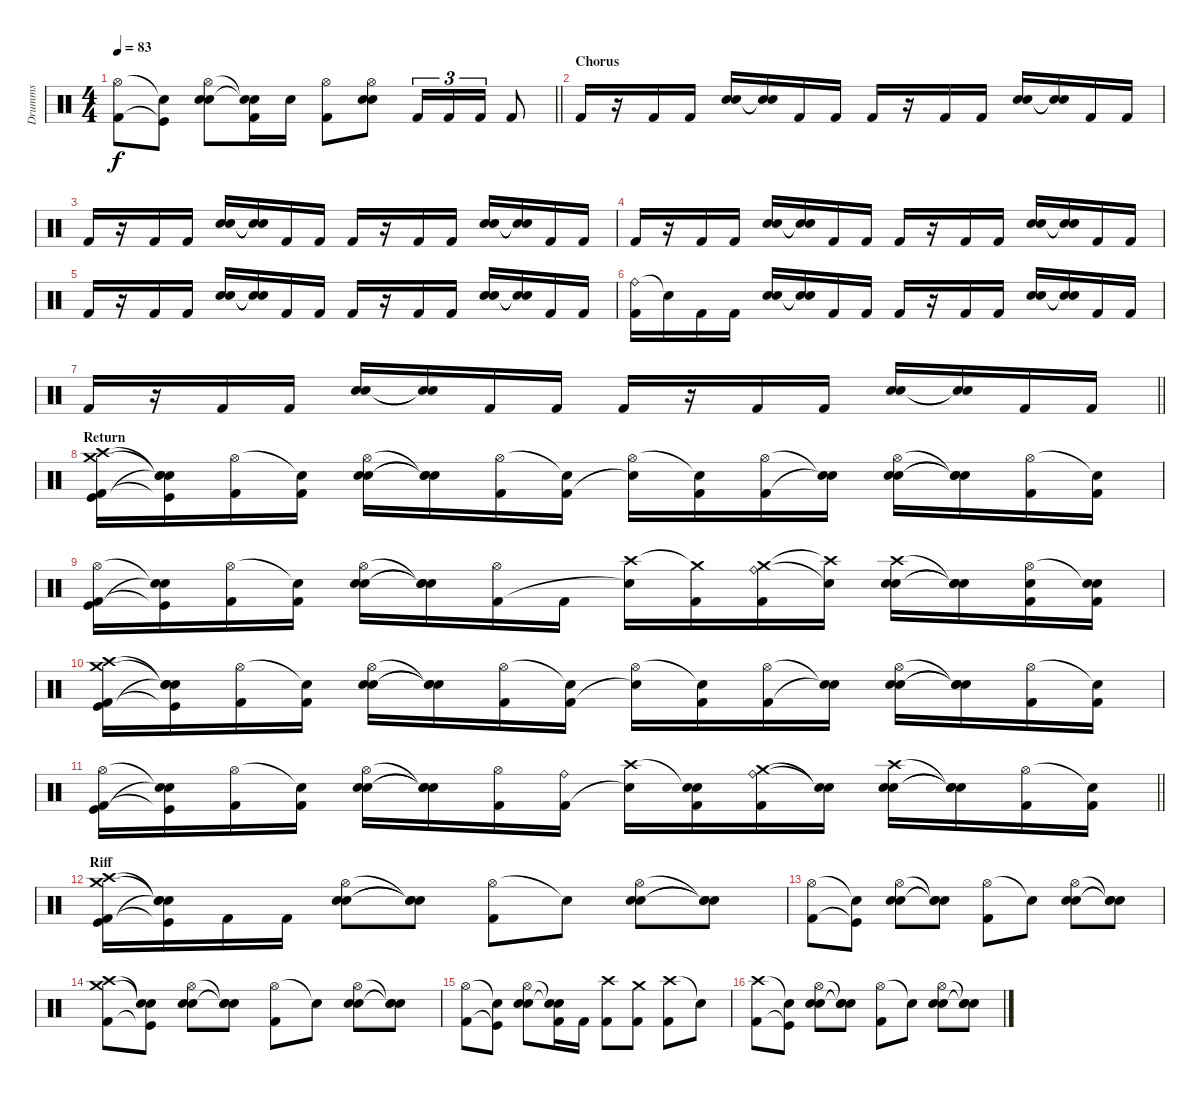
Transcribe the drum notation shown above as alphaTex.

\track ("Drumms" "Drumms") {instrument percussion}
\staff {score}
\articulation defaults
\ts (4 4)
\tempo 83
\clef neutral
\barLineRight lightlight
\ks c
("Hi-Hat (open)" "Kick (hit) 2").8{dy f} ("Snare (hit)"{t} "Kick (hit)"{t}).8 ("Hi-Hat (open)" "Electric Snare (hit)" "Electric Snare (hit)").8 ("Snare (hit)"{t} "Kick (hit) 2" "Snare (hit)"{t}).16 "Electric Snare (hit)".16 ("Hi-Hat (open)" "Kick (hit) 2").8 ("Hi-Hat (open)" "Electric Snare (hit)" "Electric Snare (hit)").8 "Kick (hit) 2".16{tu (3 2)} "Kick (hit) 2".16{tu (3 2)} "Kick (hit) 2".16{tu (3 2)} "Kick (hit) 2".8 |
\section ("" "Chorus")
"Kick (hit) 2".16 r.16 "Kick (hit) 2".16 "Kick (hit) 2".16 ("Electric Snare (hit)" "Electric Snare (hit)").16 ("Snare (hit)"{t} "Snare (hit)"{t}).16 "Kick (hit) 2".16 "Kick (hit) 2".16 "Kick (hit) 2".16 r.16 "Kick (hit) 2".16 "Kick (hit) 2".16 ("Electric Snare (hit)" "Electric Snare (hit)").16 ("Snare (hit)"{t} "Snare (hit)"{t}).16 "Kick (hit) 2".16 "Kick (hit) 2".16 |
"Kick (hit) 2".16 r.16 "Kick (hit) 2".16 "Kick (hit) 2".16 ("Electric Snare (hit)" "Electric Snare (hit)").16 ("Snare (hit)"{t} "Snare (hit)"{t}).16 "Kick (hit) 2".16 "Kick (hit) 2".16 "Kick (hit) 2".16 r.16 "Kick (hit) 2".16 "Kick (hit) 2".16 ("Electric Snare (hit)" "Electric Snare (hit)").16 ("Snare (hit)"{t} "Snare (hit)"{t}).16 "Kick (hit) 2".16 "Kick (hit) 2".16 |
"Kick (hit) 2".16 r.16 "Kick (hit) 2".16 "Kick (hit) 2".16 ("Electric Snare (hit)" "Electric Snare (hit)").16 ("Snare (hit)"{t} "Snare (hit)"{t}).16 "Kick (hit) 2".16 "Kick (hit) 2".16 "Kick (hit) 2".16 r.16 "Kick (hit) 2".16 "Kick (hit) 2".16 ("Electric Snare (hit)" "Electric Snare (hit)").16 ("Snare (hit)"{t} "Snare (hit)"{t}).16 "Kick (hit) 2".16 "Kick (hit) 2".16 |
"Kick (hit) 2".16 r.16 "Kick (hit) 2".16 "Kick (hit) 2".16 ("Electric Snare (hit)" "Electric Snare (hit)").16 ("Snare (hit)"{t} "Snare (hit)"{t}).16 "Kick (hit) 2".16 "Kick (hit) 2".16 "Kick (hit) 2".16 r.16 "Kick (hit) 2".16 "Kick (hit) 2".16 ("Electric Snare (hit)" "Electric Snare (hit)").16 ("Snare (hit)"{t} "Snare (hit)"{t}).16 "Kick (hit) 2".16 "Kick (hit) 2".16 |
("Ride (bell)" "Kick (hit) 2").16 "Snare (hit)"{t}.16 "Kick (hit) 2".16 "Kick (hit) 2".16 ("Electric Snare (hit)" "Electric Snare (hit)").16 ("Snare (hit)"{t} "Snare (hit)"{t}).16 "Kick (hit) 2".16 "Kick (hit) 2".16 "Kick (hit) 2".16 r.16 "Kick (hit) 2".16 "Kick (hit) 2".16 ("Electric Snare (hit)" "Electric Snare (hit)").16 ("Snare (hit)"{t} "Snare (hit)"{t}).16 "Kick (hit) 2".16 "Kick (hit) 2".16 |
\barLineRight lightlight "Kick (hit) 2".16
r.16 "Kick (hit) 2".16 "Kick (hit) 2".16 ("Electric Snare (hit)" "Electric Snare (hit)").16 ("Snare (hit)"{t} "Snare (hit)"{t}).16 "Kick (hit) 2".16 "Kick (hit) 2".16 "Kick (hit) 2".16 r.16 "Kick (hit) 2".16 "Kick (hit) 2".16 ("Electric Snare (hit)" "Electric Snare (hit)").16 ("Snare (hit)"{t} "Snare (hit)"{t}).16 "Kick (hit) 2".16 "Kick (hit) 2".16 |
\section ("" "Return")
("Crash high (hit)" "Crash medium (hit)" "Kick (hit) 2" "Kick (hit)").16 ("Snare (hit)"{t} "Snare (hit)"{t} "Kick (hit)"{t} "Snare (hit)"{t}).16 ("Hi-Hat (open)" "Kick (hit) 2").16 ("Snare (hit)"{t} "Kick (hit) 2").16 ("Hi-Hat (open)" "Electric Snare (hit)" "Electric Snare (hit)").16 ("Snare (hit)"{t} "Snare (hit)"{t} "Snare (hit)"{t}).16 ("Hi-Hat (open)" "Kick (hit) 2").16 ("Snare (hit)"{t} "Kick (hit) 2").16 ("Hi-Hat (open)" "Snare (hit)"{t}).16 ("Snare (hit)"{t} "Kick (hit) 2").16 ("Hi-Hat (open)" "Kick (hit) 2").16 ("Snare (hit)"{t} "Snare (hit)"{t}).16 ("Hi-Hat (open)" "Electric Snare (hit)" "Electric Snare (hit)").16 ("Snare (hit)"{t} "Snare (hit)"{t} "Snare (hit)"{t}).16 ("Hi-Hat (open)" "Kick (hit) 2").16 ("Snare (hit)"{t} "Kick (hit) 2").16 |
("Hi-Hat (open)" "Kick (hit) 2" "Kick (hit)").16 ("Snare (hit)"{t} "Kick (hit)"{t} "Snare (hit)"{t}).16 ("Hi-Hat (open)" "Kick (hit) 2").16 ("Snare (hit)"{t} "Kick (hit) 2").16 ("Hi-Hat (open)" "Electric Snare (hit)" "Electric Snare (hit)").16 ("Snare (hit)"{t} "Snare (hit)"{t} "Snare (hit)"{t}).16 ("Hi-Hat (open)" "Kick (hit) 2").16 "Kick (hit) 2".16 ("Crash high (hit)" "Snare (hit)"{t}).16 ("Crash medium (hit)"{t} "Kick (hit) 2").16 ("Crash medium (hit)" "Ride (bell)" "Kick (hit) 2").16 ("Crash high (hit)"{t} "Snare (hit)"{t}).16 ("Crash high (hit)" "Electric Snare (hit)" "Electric Snare (hit)").16 ("Snare (hit)"{t} "Snare (hit)"{t} "Snare (hit)"{t}).16 ("Hi-Hat (open)" "Kick (hit) 2" "Electric Snare (hit)").16 ("Snare (hit)"{t} "Kick (hit) 2" "Electric Snare (hit)").16 |
("Crash high (hit)" "Crash medium (hit)" "Kick (hit) 2" "Kick (hit)").16 ("Snare (hit)"{t} "Snare (hit)"{t} "Kick (hit)"{t} "Snare (hit)"{t}).16 ("Hi-Hat (open)" "Kick (hit) 2").16 ("Snare (hit)"{t} "Kick (hit) 2").16 ("Hi-Hat (open)" "Electric Snare (hit)" "Electric Snare (hit)").16 ("Snare (hit)"{t} "Snare (hit)"{t} "Snare (hit)"{t}).16 ("Hi-Hat (open)" "Kick (hit) 2").16 ("Snare (hit)"{t} "Kick (hit) 2").16 ("Hi-Hat (open)" "Snare (hit)"{t}).16 ("Snare (hit)"{t} "Kick (hit) 2").16 ("Hi-Hat (open)" "Kick (hit) 2").16 ("Snare (hit)"{t} "Snare (hit)"{t}).16 ("Hi-Hat (open)" "Electric Snare (hit)" "Electric Snare (hit)").16 ("Snare (hit)"{t} "Snare (hit)"{t} "Snare (hit)"{t}).16 ("Hi-Hat (open)" "Kick (hit) 2").16 ("Snare (hit)"{t} "Kick (hit) 2").16 |
\barLineRight lightlight
("Hi-Hat (open)" "Kick (hit) 2" "Kick (hit)").16 ("Snare (hit)"{t} "Kick (hit)"{t} "Snare (hit)"{t}).16 ("Hi-Hat (open)" "Kick (hit) 2").16 ("Snare (hit)"{t} "Kick (hit) 2").16 ("Hi-Hat (open)" "Electric Snare (hit)" "Electric Snare (hit)").16 ("Snare (hit)"{t} "Snare (hit)"{t} "Snare (hit)"{t}).16 ("Hi-Hat (open)" "Kick (hit) 2").16 ("Ride (bell)" "Kick (hit) 2").16 ("Crash high (hit)" "Snare (hit)"{t}).16 ("Snare (hit)"{t} "Kick (hit) 2" "Electric Snare (hit)").16 ("Crash medium (hit)" "Ride (bell)" "Kick (hit) 2").16 ("Snare (hit)"{t} "Snare (hit)"{t}).16 ("Crash high (hit)" "Electric Snare (hit)" "Electric Snare (hit)").16 ("Snare (hit)"{t} "Snare (hit)"{t} "Snare (hit)"{t}).16 ("Hi-Hat (open)" "Kick (hit) 2").16 ("Snare (hit)"{t} "Kick (hit) 2").16 |
\section ("" "Riff")
("Crash high (hit)" "Crash medium (hit)" "Kick (hit) 2" "Kick (hit)").16 ("Snare (hit)"{t} "Snare (hit)"{t} "Kick (hit)"{t} "Snare (hit)"{t}).16 "Kick (hit) 2".16 "Kick (hit) 2".16 ("Hi-Hat (open)" "Electric Snare (hit)" "Electric Snare (hit)").8 ("Snare (hit)"{t} "Snare (hit)"{t} "Snare (hit)"{t}).8 ("Hi-Hat (open)" "Kick (hit) 2").8 "Snare (hit)"{t}.8 ("Hi-Hat (open)" "Electric Snare (hit)" "Electric Snare (hit)").8 ("Snare (hit)"{t} "Snare (hit)"{t} "Snare (hit)"{t}).8 |
("Hi-Hat (open)" "Kick (hit) 2").8 ("Snare (hit)"{t} "Kick (hit)"{t}).8 ("Hi-Hat (open)" "Electric Snare (hit)" "Electric Snare (hit)").8 ("Snare (hit)"{t} "Snare (hit)"{t} "Snare (hit)"{t}).8 ("Hi-Hat (open)" "Kick (hit) 2").8 "Snare (hit)"{t}.8 ("Hi-Hat (open)" "Electric Snare (hit)" "Electric Snare (hit)").8 ("Snare (hit)"{t} "Snare (hit)"{t} "Snare (hit)"{t}).8 |
("Crash high (hit)" "Crash medium (hit)" "Kick (hit) 2").8 ("Snare (hit)"{t} "Snare (hit)"{t} "Kick (hit)"{t}).8 ("Hi-Hat (open)" "Electric Snare (hit)" "Electric Snare (hit)").8 ("Snare (hit)"{t} "Snare (hit)"{t} "Snare (hit)"{t}).8 ("Hi-Hat (open)" "Kick (hit) 2").8 "Snare (hit)"{t}.8 ("Hi-Hat (open)" "Electric Snare (hit)" "Electric Snare (hit)").8 ("Snare (hit)"{t} "Snare (hit)"{t} "Snare (hit)"{t}).8 |
("Hi-Hat (open)" "Kick (hit) 2").8 ("Snare (hit)"{t} "Kick (hit)"{t}).8 ("Hi-Hat (open)" "Electric Snare (hit)" "Electric Snare (hit)").8 ("Snare (hit)"{t} "Kick (hit) 2" "Snare (hit)"{t}).16 "Kick (hit) 2".16 ("Crash high (hit)" "Kick (hit) 2").8 ("Crash medium (hit)" "Kick (hit) 2").8 ("Crash high (hit)" "Kick (hit) 2").8 "Snare (hit)"{t}.8 |
("Crash high (hit)" "Kick (hit) 2").8 ("Snare (hit)"{t} "Kick (hit)"{t}).8 ("Hi-Hat (open)" "Electric Snare (hit)" "Electric Snare (hit)").8 ("Snare (hit)"{t} "Snare (hit)"{t} "Snare (hit)"{t}).8 ("Hi-Hat (open)" "Kick (hit) 2").8 "Snare (hit)"{t}.8 ("Hi-Hat (open)" "Electric Snare (hit)" "Electric Snare (hit)").8 ("Snare (hit)"{t} "Snare (hit)"{t} "Snare (hit)"{t}).8
